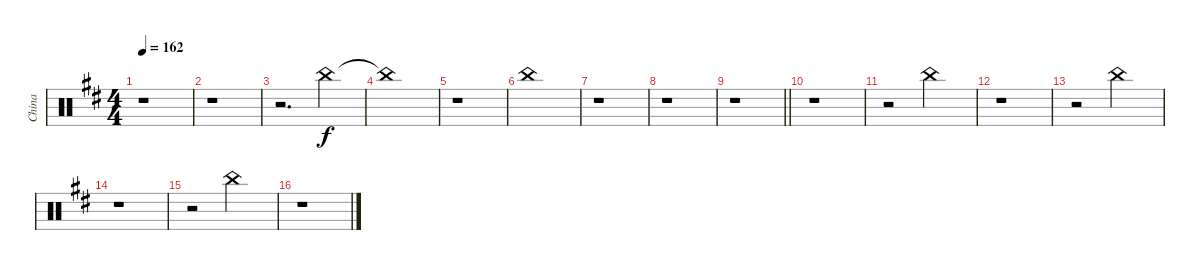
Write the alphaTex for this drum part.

\track ("China" "China") {instrument percussion}
\staff {score}
\articulation defaults
\ts (4 4)
\tempo 162
\clef neutral
\ks bminor
r.1{dy f} |
r.1 |
r.2{d} "China (hit)".4 |
"China (hit)"{t}.1 |
r.1 |
"China (hit)".1 |
r.1 |
r.1 |
\barLineRight lightlight
r.1 |
r.1 |
r.2 "China (hit)".2 |
r.1 |
r.2 "China (hit)".2 |
r.1 |
r.2 "China (hit)".2 |
r.1
